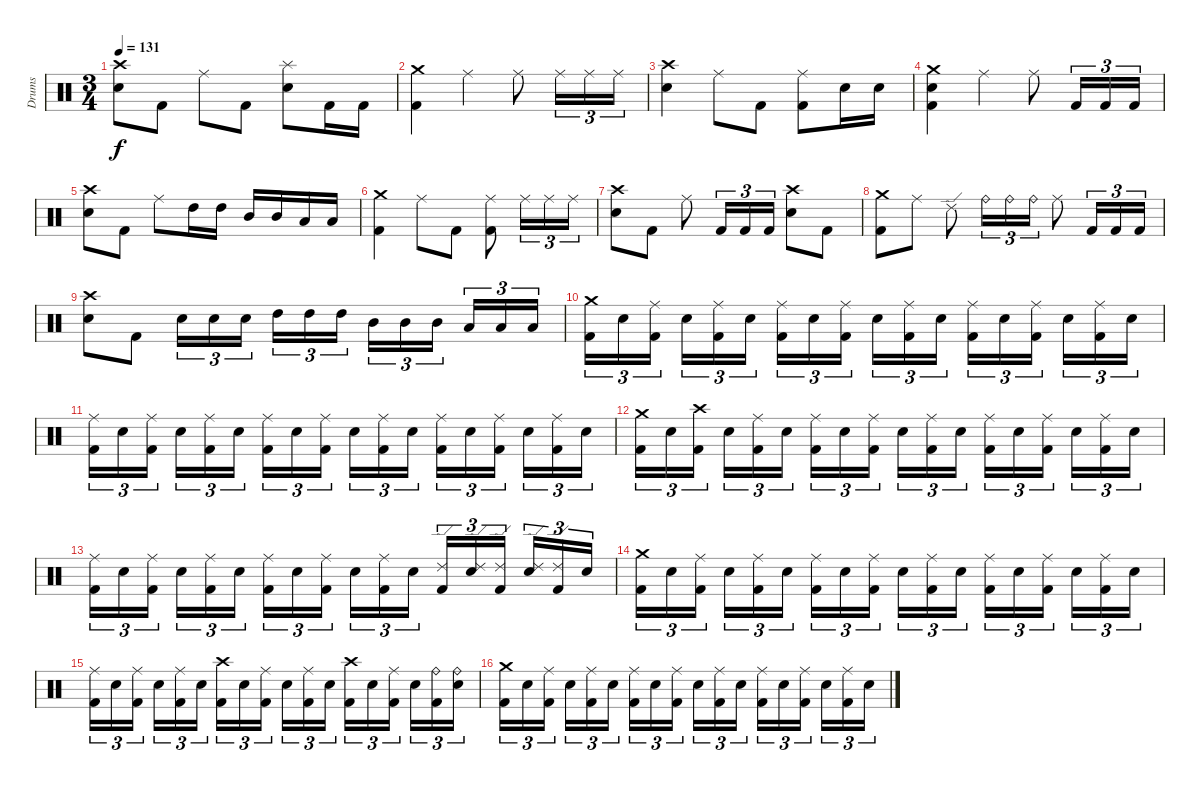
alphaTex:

\track ("Drums" "Drums") {instrument percussion}
\staff {score}
\articulation defaults
\ts (3 4)
\tempo 131
\clef neutral
\ks c
("Electric Snare (hit)" "Crash high (hit)").8{dy f} "Kick (hit) 2".8 "Ride (middle)".8 "Kick (hit) 2".8 ("Electric Snare (hit)" "Splash (hit)").8 "Kick (hit) 2".16 "Kick (hit) 2".16 |
("Kick (hit) 2" "Crash medium (hit)").4 "Ride (middle)".4 "Ride (middle)".8 "Ride (middle)".16{tu (3 2)} "Ride (middle)".16{tu (3 2)} "Ride (middle)".16{tu (3 2)} |
("Electric Snare (hit)" "Crash high (hit)").4 "Ride (middle)".8 "Kick (hit) 2".8 ("Kick (hit) 2" "Ride (middle)").8 "Electric Snare (hit)".16 "Electric Snare (hit)".16 |
("Kick (hit) 2" "Electric Snare (hit)" "Crash medium (hit)").4 "Ride (middle)".4 "Ride (middle)".8 "Kick (hit) 2".16{tu (3 2)} "Kick (hit) 2".16{tu (3 2)} "Kick (hit) 2".16{tu (3 2)} |
("Electric Snare (hit)" "Crash high (hit)").8 "Kick (hit) 2".8 "Ride (middle)".8 "High Tom (hit)".16 "High Tom (hit)".16 "Mid Tom (hit)".16 "Mid Tom (hit)".16 "Low Tom (hit)".16 "Low Tom (hit)".16 |
("Kick (hit) 2" "Crash medium (hit)").4 "Ride (middle)".8 "Kick (hit) 2".8 ("Kick (hit) 2" "Ride (middle)").8 "Ride (middle)".16{tu (3 2)} "Ride (middle)".16{tu (3 2)} "Ride (middle)".16{tu (3 2)} |
("Electric Snare (hit)" "Crash high (hit)").8 "Kick (hit) 2".8 "Ride (middle)".8 "Kick (hit) 2".16{tu (3 2)} "Kick (hit) 2".16{tu (3 2)} "Kick (hit) 2".16{tu (3 2)} ("Electric Snare (hit)" "Crash high (hit)").8 "Kick (hit) 2".8 |
("Kick (hit) 2" "Crash medium (hit)").8 "Ride (middle)".8 "Ride (edge) 2".8 "Ride (bell)".16{tu (3 2)} "Ride (bell)".16{tu (3 2)} "Ride (bell)".16{tu (3 2)} "Ride (middle)".8 "Kick (hit) 2".16{tu (3 2)} "Kick (hit) 2".16{tu (3 2)} "Kick (hit) 2".16{tu (3 2)} |
("Electric Snare (hit)" "Crash high (hit)").8 "Kick (hit) 2".8 "Electric Snare (hit)".16{tu (3 2)} "Electric Snare (hit)".16{tu (3 2)} "Electric Snare (hit)".16{tu (3 2)} "High Tom (hit)".16{tu (3 2)} "High Tom (hit)".16{tu (3 2)} "High Tom (hit)".16{tu (3 2)} "Mid Tom (hit)".16{tu (3 2)} "Mid Tom (hit)".16{tu (3 2)} "Mid Tom (hit)".16{tu (3 2)} "Low Tom (hit)".16{tu (3 2)} "Low Tom (hit)".16{tu (3 2)} "Low Tom (hit)".16{tu (3 2)} |
("Kick (hit) 2" "Crash medium (hit)").16{tu (3 2)} "Electric Snare (hit)".16{tu (3 2)} ("Kick (hit) 2" "Ride (middle)").16{tu (3 2)} "Electric Snare (hit)".16{tu (3 2)} ("Kick (hit) 2" "Ride (middle)").16{tu (3 2)} "Electric Snare (hit)".16{tu (3 2)} ("Kick (hit) 2" "Ride (middle)").16{tu (3 2)} "Electric Snare (hit)".16{tu (3 2)} ("Kick (hit) 2" "Ride (middle)").16{tu (3 2)} "Electric Snare (hit)".16{tu (3 2)} ("Kick (hit) 2" "Ride (middle)").16{tu (3 2)} "Electric Snare (hit)".16{tu (3 2)} ("Kick (hit) 2" "Ride (middle)").16{tu (3 2)} "Electric Snare (hit)".16{tu (3 2)} ("Kick (hit) 2" "Ride (middle)").16{tu (3 2)} "Electric Snare (hit)".16{tu (3 2)} ("Kick (hit) 2" "Ride (middle)").16{tu (3 2)} "Electric Snare (hit)".16{tu (3 2)} |
("Kick (hit) 2" "Ride (middle)").16{tu (3 2)} "Electric Snare (hit)".16{tu (3 2)} ("Kick (hit) 2" "Ride (middle)").16{tu (3 2)} "Electric Snare (hit)".16{tu (3 2)} ("Kick (hit) 2" "Ride (middle)").16{tu (3 2)} "Electric Snare (hit)".16{tu (3 2)} ("Kick (hit) 2" "Ride (middle)").16{tu (3 2)} "Electric Snare (hit)".16{tu (3 2)} ("Kick (hit) 2" "Ride (middle)").16{tu (3 2)} "Electric Snare (hit)".16{tu (3 2)} ("Kick (hit) 2" "Ride (middle)").16{tu (3 2)} "Electric Snare (hit)".16{tu (3 2)} ("Kick (hit) 2" "Ride (middle)").16{tu (3 2)} "Electric Snare (hit)".16{tu (3 2)} ("Kick (hit) 2" "Ride (middle)").16{tu (3 2)} "Electric Snare (hit)".16{tu (3 2)} ("Kick (hit) 2" "Ride (middle)").16{tu (3 2)} "Electric Snare (hit)".16{tu (3 2)} |
("Kick (hit) 2" "Crash medium (hit)").16{tu (3 2)} "Electric Snare (hit)".16{tu (3 2)} ("Kick (hit) 2" "Crash high (hit)").16{tu (3 2)} "Electric Snare (hit)".16{tu (3 2)} ("Kick (hit) 2" "Ride (middle)").16{tu (3 2)} "Electric Snare (hit)".16{tu (3 2)} ("Kick (hit) 2" "Ride (middle)").16{tu (3 2)} "Electric Snare (hit)".16{tu (3 2)} ("Kick (hit) 2" "Ride (middle)").16{tu (3 2)} "Electric Snare (hit)".16{tu (3 2)} ("Kick (hit) 2" "Ride (middle)").16{tu (3 2)} "Electric Snare (hit)".16{tu (3 2)} ("Kick (hit) 2" "Ride (middle)").16{tu (3 2)} "Electric Snare (hit)".16{tu (3 2)} ("Kick (hit) 2" "Ride (middle)").16{tu (3 2)} "Electric Snare (hit)".16{tu (3 2)} ("Kick (hit) 2" "Ride (middle)").16{tu (3 2)} "Electric Snare (hit)".16{tu (3 2)} |
("Kick (hit) 2" "Ride (middle)").16{tu (3 2)} "Electric Snare (hit)".16{tu (3 2)} ("Kick (hit) 2" "Ride (middle)").16{tu (3 2)} "Electric Snare (hit)".16{tu (3 2)} ("Kick (hit) 2" "Ride (middle)").16{tu (3 2)} "Electric Snare (hit)".16{tu (3 2)} ("Kick (hit) 2" "Ride (middle)").16{tu (3 2)} "Electric Snare (hit)".16{tu (3 2)} ("Kick (hit) 2" "Ride (middle)").16{tu (3 2)} "Electric Snare (hit)".16{tu (3 2)} ("Kick (hit) 2" "Ride (middle)").16{tu (3 2)} "Electric Snare (hit)".16{tu (3 2)} ("Kick (hit) 2" "Ride (edge) 2").16{tu (3 2)} ("Electric Snare (hit)" "Ride (edge) 2").16{tu (3 2)} ("Kick (hit) 2" "Ride (edge) 2").16{tu (3 2)} ("Electric Snare (hit)" "Ride (edge) 2").16{tu (3 2)} ("Kick (hit) 2" "Ride (edge) 2").16{tu (3 2)} "Electric Snare (hit)".16{tu (3 2)} |
("Kick (hit) 2" "Crash medium (hit)").16{tu (3 2)} "Electric Snare (hit)".16{tu (3 2)} ("Kick (hit) 2" "Ride (middle)").16{tu (3 2)} "Electric Snare (hit)".16{tu (3 2)} ("Kick (hit) 2" "Ride (middle)").16{tu (3 2)} "Electric Snare (hit)".16{tu (3 2)} ("Kick (hit) 2" "Ride (middle)").16{tu (3 2)} "Electric Snare (hit)".16{tu (3 2)} ("Kick (hit) 2" "Ride (middle)").16{tu (3 2)} "Electric Snare (hit)".16{tu (3 2)} ("Kick (hit) 2" "Ride (middle)").16{tu (3 2)} "Electric Snare (hit)".16{tu (3 2)} ("Kick (hit) 2" "Ride (middle)").16{tu (3 2)} "Electric Snare (hit)".16{tu (3 2)} ("Kick (hit) 2" "Ride (middle)").16{tu (3 2)} "Electric Snare (hit)".16{tu (3 2)} ("Kick (hit) 2" "Ride (middle)").16{tu (3 2)} "Electric Snare (hit)".16{tu (3 2)} |
("Kick (hit) 2" "Ride (middle)").16{tu (3 2)} "Electric Snare (hit)".16{tu (3 2)} ("Kick (hit) 2" "Ride (middle)").16{tu (3 2)} "Electric Snare (hit)".16{tu (3 2)} ("Kick (hit) 2" "Ride (middle)").16{tu (3 2)} "Electric Snare (hit)".16{tu (3 2)} ("Kick (hit) 2" "Crash high (hit)").16{tu (3 2)} "Electric Snare (hit)".16{tu (3 2)} ("Kick (hit) 2" "Ride (middle)").16{tu (3 2)} "Electric Snare (hit)".16{tu (3 2)} ("Kick (hit) 2" "Ride (middle)").16{tu (3 2)} "Electric Snare (hit)".16{tu (3 2)} ("Kick (hit) 2" "Crash high (hit)").16{tu (3 2)} "Electric Snare (hit)".16{tu (3 2)} ("Kick (hit) 2" "Ride (middle)").16{tu (3 2)} "Electric Snare (hit)".16{tu (3 2)} ("Kick (hit) 2" "Ride (bell)").16{tu (3 2)} ("Electric Snare (hit)" "Ride (bell)").16{tu (3 2)} |
("Kick (hit) 2" "Crash medium (hit)").16{tu (3 2)} "Electric Snare (hit)".16{tu (3 2)} ("Kick (hit) 2" "Ride (middle)").16{tu (3 2)} "Electric Snare (hit)".16{tu (3 2)} ("Kick (hit) 2" "Ride (middle)").16{tu (3 2)} "Electric Snare (hit)".16{tu (3 2)} ("Kick (hit) 2" "Ride (middle)").16{tu (3 2)} "Electric Snare (hit)".16{tu (3 2)} ("Kick (hit) 2" "Ride (middle)").16{tu (3 2)} "Electric Snare (hit)".16{tu (3 2)} ("Kick (hit) 2" "Ride (middle)").16{tu (3 2)} "Electric Snare (hit)".16{tu (3 2)} ("Kick (hit) 2" "Ride (middle)").16{tu (3 2)} "Electric Snare (hit)".16{tu (3 2)} ("Kick (hit) 2" "Ride (middle)").16{tu (3 2)} "Electric Snare (hit)".16{tu (3 2)} ("Kick (hit) 2" "Ride (middle)").16{tu (3 2)} "Electric Snare (hit)".16{tu (3 2)}
